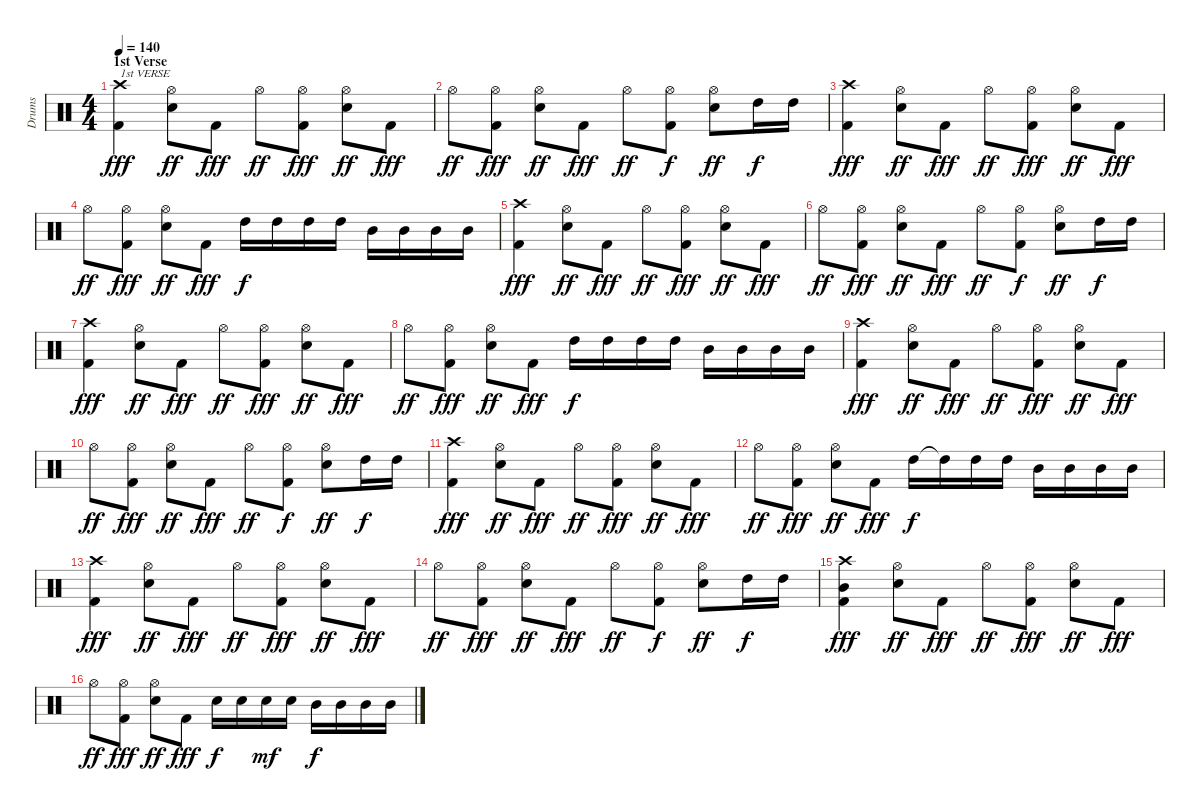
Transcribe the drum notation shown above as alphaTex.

\track ("Drums" "Drums") {instrument percussion}
\staff {score}
\articulation defaults
\ts (4 4)
\section ("" "1st Verse")
\tempo 140
\clef neutral
\ks c
("Crash high (hit)" "Kick (hit) 2").4{txt "1st VERSE" dy fff} ("Hi-Hat (open)" "Snare (hit) 2").8{dy ff} "Kick (hit) 2".8{dy fff} "Hi-Hat (open)".8{dy ff} ("Hi-Hat (open)" "Kick (hit) 2").8{dy fff} ("Hi-Hat (open)" "Snare (hit) 2").8{dy ff} "Kick (hit) 2".8{dy fff} |
"Hi-Hat (open)".8{dy ff} ("Hi-Hat (open)" "Kick (hit) 2").8{dy fff} ("Hi-Hat (open)" "Snare (hit) 2").8{dy ff} "Kick (hit) 2".8{dy fff} "Hi-Hat (open)".8{dy ff} ("Hi-Hat (open)" "Kick (hit) 2").8{dy f} ("Hi-Hat (open)" "Snare (hit) 2").8{dy ff} "High Tom (hit)".16{dy f} "High Tom (hit)".16 |
("Crash high (hit)" "Kick (hit) 2").4{dy fff} ("Hi-Hat (open)" "Snare (hit) 2").8{dy ff} "Kick (hit) 2".8{dy fff} "Hi-Hat (open)".8{dy ff} ("Hi-Hat (open)" "Kick (hit) 2").8{dy fff} ("Hi-Hat (open)" "Snare (hit) 2").8{dy ff} "Kick (hit) 2".8{dy fff} |
"Hi-Hat (open)".8{dy ff} ("Hi-Hat (open)" "Kick (hit) 2").8{dy fff} ("Hi-Hat (open)" "Snare (hit) 2").8{dy ff} "Kick (hit) 2".8{dy fff} "High Tom (hit)".16{dy f} "High Tom (hit)".16 "High Tom (hit)".16 "High Tom (hit)".16 "Mid Tom (hit)".16 "Mid Tom (hit)".16 "Mid Tom (hit)".16 "Mid Tom (hit)".16 |
("Crash high (hit)" "Kick (hit) 2").4{dy fff} ("Hi-Hat (open)" "Snare (hit) 2").8{dy ff} "Kick (hit) 2".8{dy fff} "Hi-Hat (open)".8{dy ff} ("Hi-Hat (open)" "Kick (hit) 2").8{dy fff} ("Hi-Hat (open)" "Snare (hit) 2").8{dy ff} "Kick (hit) 2".8{dy fff} |
"Hi-Hat (open)".8{dy ff} ("Hi-Hat (open)" "Kick (hit) 2").8{dy fff} ("Hi-Hat (open)" "Snare (hit) 2").8{dy ff} "Kick (hit) 2".8{dy fff} "Hi-Hat (open)".8{dy ff} ("Hi-Hat (open)" "Kick (hit) 2").8{dy f} ("Hi-Hat (open)" "Snare (hit) 2").8{dy ff} "High Tom (hit)".16{dy f} "High Tom (hit)".16 |
("Crash high (hit)" "Kick (hit) 2").4{dy fff} ("Hi-Hat (open)" "Snare (hit) 2").8{dy ff} "Kick (hit) 2".8{dy fff} "Hi-Hat (open)".8{dy ff} ("Hi-Hat (open)" "Kick (hit) 2").8{dy fff} ("Hi-Hat (open)" "Snare (hit) 2").8{dy ff} "Kick (hit) 2".8{dy fff} |
"Hi-Hat (open)".8{dy ff} ("Hi-Hat (open)" "Kick (hit) 2").8{dy fff} ("Hi-Hat (open)" "Snare (hit) 2").8{dy ff} "Kick (hit) 2".8{dy fff} "High Tom (hit)".16{dy f} "High Tom (hit)".16 "High Tom (hit)".16 "High Tom (hit)".16 "Mid Tom (hit)".16 "Mid Tom (hit)".16 "Mid Tom (hit)".16 "Mid Tom (hit)".16 |
("Crash high (hit)" "Kick (hit) 2").4{dy fff} ("Hi-Hat (open)" "Snare (hit) 2").8{dy ff} "Kick (hit) 2".8{dy fff} "Hi-Hat (open)".8{dy ff} ("Hi-Hat (open)" "Kick (hit) 2").8{dy fff} ("Hi-Hat (open)" "Snare (hit) 2").8{dy ff} "Kick (hit) 2".8{dy fff} |
"Hi-Hat (open)".8{dy ff} ("Hi-Hat (open)" "Kick (hit) 2").8{dy fff} ("Hi-Hat (open)" "Snare (hit) 2").8{dy ff} "Kick (hit) 2".8{dy fff} "Hi-Hat (open)".8{dy ff} ("Hi-Hat (open)" "Kick (hit) 2").8{dy f} ("Hi-Hat (open)" "Snare (hit) 2").8{dy ff} "High Tom (hit)".16{dy f} "High Tom (hit)".16 |
("Crash high (hit)" "Kick (hit) 2").4{dy fff} ("Hi-Hat (open)" "Snare (hit) 2").8{dy ff} "Kick (hit) 2".8{dy fff} "Hi-Hat (open)".8{dy ff} ("Hi-Hat (open)" "Kick (hit) 2").8{dy fff} ("Hi-Hat (open)" "Snare (hit) 2").8{dy ff} "Kick (hit) 2".8{dy fff} |
"Hi-Hat (open)".8{dy ff} ("Hi-Hat (open)" "Kick (hit) 2").8{dy fff} ("Hi-Hat (open)" "Snare (hit) 2").8{dy ff} "Kick (hit) 2".8{dy fff} "High Tom (hit)".16{dy f} "High Tom (hit)"{t}.16 "High Tom (hit)".16 "High Tom (hit)".16 "Mid Tom (hit)".16 "Mid Tom (hit)".16 "Mid Tom (hit)".16 "Mid Tom (hit)".16 |
("Crash high (hit)" "Kick (hit) 2").4{dy fff} ("Hi-Hat (open)" "Snare (hit) 2").8{dy ff} "Kick (hit) 2".8{dy fff} "Hi-Hat (open)".8{dy ff} ("Hi-Hat (open)" "Kick (hit) 2").8{dy fff} ("Hi-Hat (open)" "Snare (hit) 2").8{dy ff} "Kick (hit) 2".8{dy fff} |
"Hi-Hat (open)".8{dy ff} ("Hi-Hat (open)" "Kick (hit) 2").8{dy fff} ("Hi-Hat (open)" "Snare (hit) 2").8{dy ff} "Kick (hit) 2".8{dy fff} "Hi-Hat (open)".8{dy ff} ("Hi-Hat (open)" "Kick (hit) 2").8{dy f} ("Hi-Hat (open)" "Snare (hit) 2").8{dy ff} "High Tom (hit)".16{dy f} "High Tom (hit)".16 |
("Crash high (hit)" "Mid Tom (hit)" "Kick (hit) 2").4{dy fff} ("Hi-Hat (open)" "Snare (hit) 2").8{dy ff} "Kick (hit) 2".8{dy fff} "Hi-Hat (open)".8{dy ff} ("Hi-Hat (open)" "Kick (hit) 2").8{dy fff} ("Hi-Hat (open)" "Snare (hit) 2").8{dy ff} "Kick (hit) 2".8{dy fff} |
"Hi-Hat (open)".8{dy ff} ("Hi-Hat (open)" "Kick (hit) 2").8{dy fff} ("Hi-Hat (open)" "Snare (hit) 2").8{dy ff} "Kick (hit) 2".8{dy fff} "Snare (hit) 2".16{dy f} "Snare (hit) 2".16 "Snare (hit) 2".16{dy mf} "Snare (hit) 2".16 "Mid Tom (hit)".16{dy f} "Mid Tom (hit)".16 "Mid Tom (hit)".16 "Mid Tom (hit)".16
